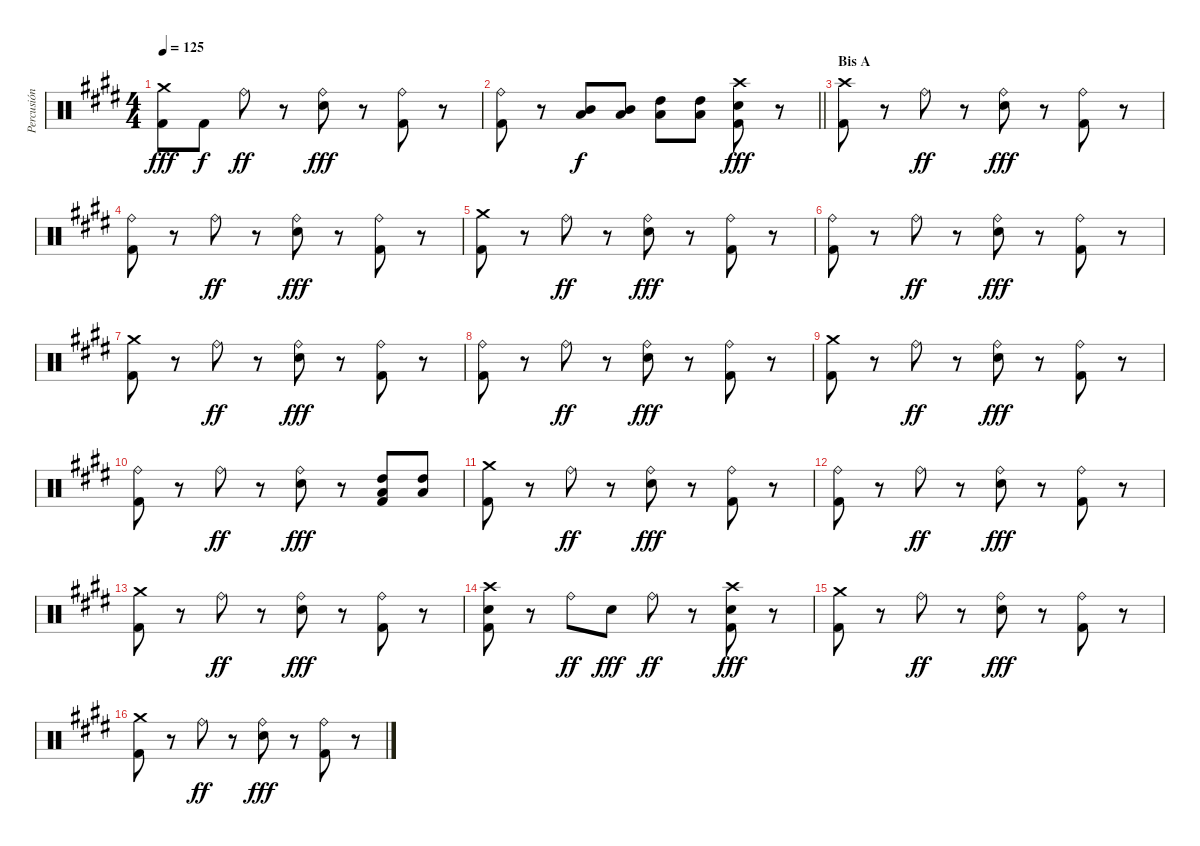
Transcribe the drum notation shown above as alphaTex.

\track ("Percusión" "Percusión") {instrument percussion}
\staff {score}
\articulation defaults
\ts (4 4)
\tempo 125
\clef neutral
\ks e
("Crash medium (hit)" "Kick (hit) 2").8{dy fff} "Kick (hit) 2".8{dy f} "Ride (bell)".8{dy ff} r.8 ("Ride (bell)" "Electric Snare (hit)").8{dy fff} r.8 ("Ride (bell)" "Kick (hit) 2").8 r.8 |
\barLineRight lightlight
("Ride (bell)" "Kick (hit) 2").8 r.8 ("Low Tom (hit)" "Mid Tom (hit)").8{dy f} ("Low Tom (hit)" "Mid Tom (hit)").8 ("Low Tom (hit)" "High Tom (hit)").8 ("Low Tom (hit)" "High Tom (hit)").8 ("Crash high (hit)" "Electric Snare (hit)" "Kick (hit) 2").8{dy fff} r.8 |
\section ("" "Bis A")
("Crash high (hit)" "Kick (hit) 2").8 r.8 "Ride (bell)".8{dy ff} r.8 ("Ride (bell)" "Electric Snare (hit)").8{dy fff} r.8 ("Ride (bell)" "Kick (hit) 2").8 r.8 |
("Ride (bell)" "Kick (hit) 2").8 r.8 "Ride (bell)".8{dy ff} r.8 ("Ride (bell)" "Electric Snare (hit)").8{dy fff} r.8 ("Ride (bell)" "Kick (hit) 2").8 r.8 |
("Crash medium (hit)" "Kick (hit) 2").8 r.8 "Ride (bell)".8{dy ff} r.8 ("Ride (bell)" "Electric Snare (hit)").8{dy fff} r.8 ("Ride (bell)" "Kick (hit) 2").8 r.8 |
("Ride (bell)" "Kick (hit) 2").8 r.8 "Ride (bell)".8{dy ff} r.8 ("Ride (bell)" "Electric Snare (hit)").8{dy fff} r.8 ("Ride (bell)" "Kick (hit) 2").8 r.8 |
("Crash medium (hit)" "Kick (hit) 2").8 r.8 "Ride (bell)".8{dy ff} r.8 ("Ride (bell)" "Electric Snare (hit)").8{dy fff} r.8 ("Ride (bell)" "Kick (hit) 2").8 r.8 |
("Ride (bell)" "Kick (hit) 2").8 r.8 "Ride (bell)".8{dy ff} r.8 ("Ride (bell)" "Electric Snare (hit)").8{dy fff} r.8 ("Ride (bell)" "Kick (hit) 2").8 r.8 |
("Crash medium (hit)" "Kick (hit) 2").8 r.8 "Ride (bell)".8{dy ff} r.8 ("Ride (bell)" "Electric Snare (hit)").8{dy fff} r.8 ("Ride (bell)" "Kick (hit) 2").8 r.8 |
("Ride (bell)" "Kick (hit) 2").8 r.8 "Ride (bell)".8{dy ff} r.8 ("Ride (bell)" "Electric Snare (hit)").8{dy fff} r.8 ("High Tom (hit)" "Low Tom (hit)" "Kick (hit) 2").8 ("High Tom (hit)" "Low Tom (hit)").8 |
("Crash medium (hit)" "Kick (hit) 2").8 r.8 "Ride (bell)".8{dy ff} r.8 ("Ride (bell)" "Electric Snare (hit)").8{dy fff} r.8 ("Ride (bell)" "Kick (hit) 2").8 r.8 |
("Ride (bell)" "Kick (hit) 2").8 r.8 "Ride (bell)".8{dy ff} r.8 ("Ride (bell)" "Electric Snare (hit)").8{dy fff} r.8 ("Ride (bell)" "Kick (hit) 2").8 r.8 |
("Crash medium (hit)" "Kick (hit) 2").8 r.8 "Ride (bell)".8{dy ff} r.8 ("Ride (bell)" "Electric Snare (hit)").8{dy fff} r.8 ("Ride (bell)" "Kick (hit) 2").8 r.8 |
("Crash high (hit)" "Electric Snare (hit)" "Kick (hit) 2").8 r.8 "Ride (bell)".8{dy ff} "Electric Snare (hit)".8{dy fff} "Ride (bell)".8{dy ff} r.8 ("Crash high (hit)" "Electric Snare (hit)" "Kick (hit) 2").8{dy fff} r.8 |
("Crash medium (hit)" "Kick (hit) 2").8 r.8 "Ride (bell)".8{dy ff} r.8 ("Ride (bell)" "Electric Snare (hit)").8{dy fff} r.8 ("Ride (bell)" "Kick (hit) 2").8 r.8 |
("Crash medium (hit)" "Kick (hit) 2").8 r.8 "Ride (bell)".8{dy ff} r.8 ("Ride (bell)" "Electric Snare (hit)").8{dy fff} r.8 ("Ride (bell)" "Kick (hit) 2").8 r.8
